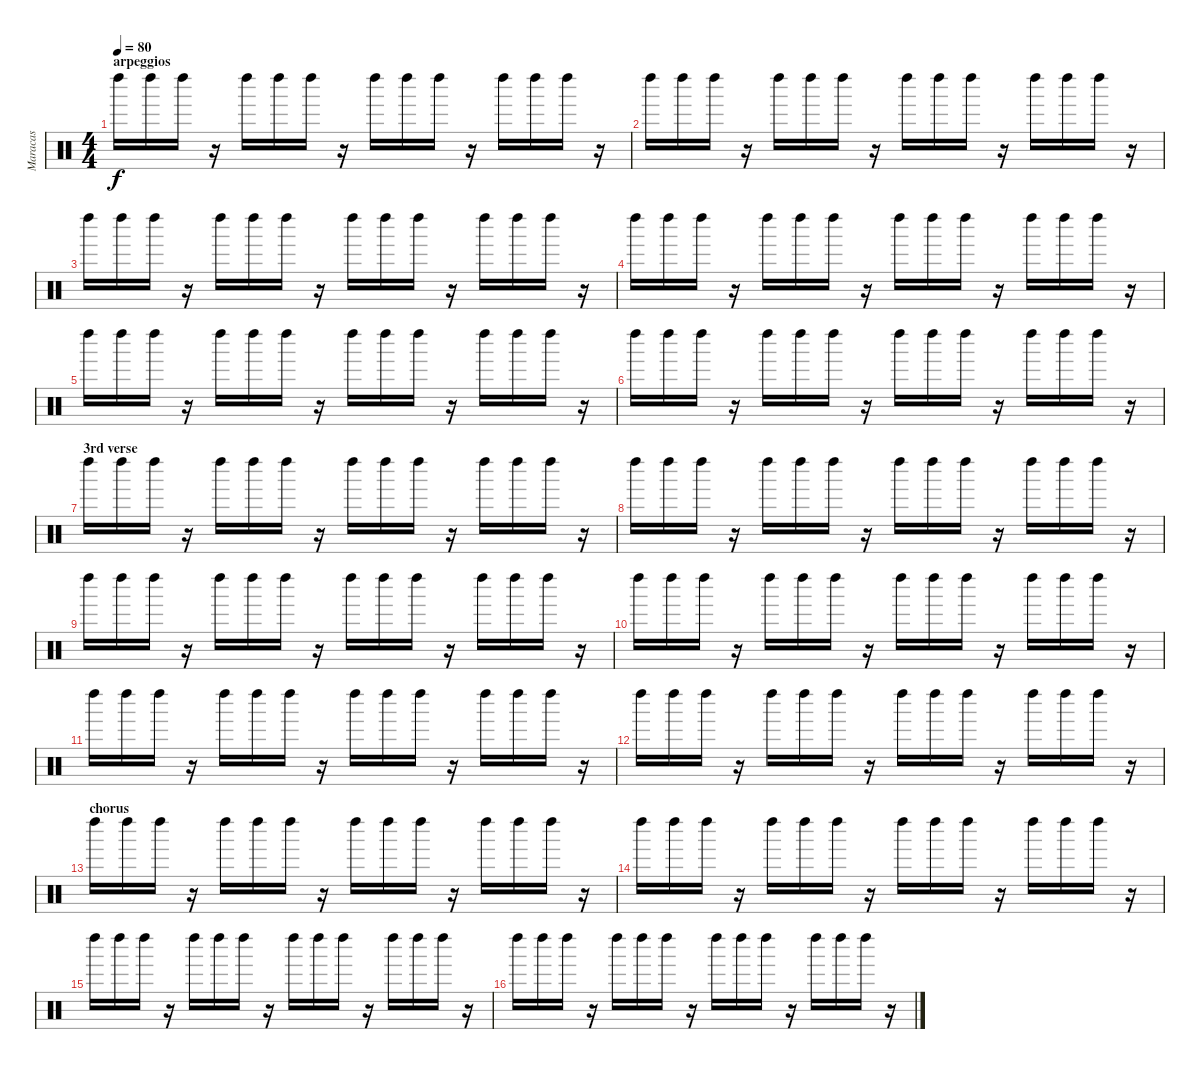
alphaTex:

\track ("Maracas" "Maracas") {instrument percussion}
\staff {score}
\articulation defaults
\ts (4 4)
\section ("" "arpeggios")
\tempo 80
\clef neutral
\ks c "Left Maraca (hit)".16{dy f} "Left Maraca (hit)".16 "Left Maraca (hit)".16
r.16 "Left Maraca (hit)".16 "Left Maraca (hit)".16 "Left Maraca (hit)".16 r.16 "Left Maraca (hit)".16 "Left Maraca (hit)".16 "Left Maraca (hit)".16 r.16 "Left Maraca (hit)".16 "Left Maraca (hit)".16 "Left Maraca (hit)".16 r.16 |
"Left Maraca (hit)".16 "Left Maraca (hit)".16 "Left Maraca (hit)".16 r.16 "Left Maraca (hit)".16 "Left Maraca (hit)".16 "Left Maraca (hit)".16 r.16 "Left Maraca (hit)".16 "Left Maraca (hit)".16 "Left Maraca (hit)".16 r.16 "Left Maraca (hit)".16 "Left Maraca (hit)".16 "Left Maraca (hit)".16 r.16 |
"Left Maraca (hit)".16 "Left Maraca (hit)".16 "Left Maraca (hit)".16 r.16 "Left Maraca (hit)".16 "Left Maraca (hit)".16 "Left Maraca (hit)".16 r.16 "Left Maraca (hit)".16 "Left Maraca (hit)".16 "Left Maraca (hit)".16 r.16 "Left Maraca (hit)".16 "Left Maraca (hit)".16 "Left Maraca (hit)".16 r.16 |
"Left Maraca (hit)".16 "Left Maraca (hit)".16 "Left Maraca (hit)".16 r.16 "Left Maraca (hit)".16 "Left Maraca (hit)".16 "Left Maraca (hit)".16 r.16 "Left Maraca (hit)".16 "Left Maraca (hit)".16 "Left Maraca (hit)".16 r.16 "Left Maraca (hit)".16 "Left Maraca (hit)".16 "Left Maraca (hit)".16 r.16 |
"Left Maraca (hit)".16 "Left Maraca (hit)".16 "Left Maraca (hit)".16 r.16 "Left Maraca (hit)".16 "Left Maraca (hit)".16 "Left Maraca (hit)".16 r.16 "Left Maraca (hit)".16 "Left Maraca (hit)".16 "Left Maraca (hit)".16 r.16 "Left Maraca (hit)".16 "Left Maraca (hit)".16 "Left Maraca (hit)".16 r.16 |
"Left Maraca (hit)".16 "Left Maraca (hit)".16 "Left Maraca (hit)".16 r.16 "Left Maraca (hit)".16 "Left Maraca (hit)".16 "Left Maraca (hit)".16 r.16 "Left Maraca (hit)".16 "Left Maraca (hit)".16 "Left Maraca (hit)".16 r.16 "Left Maraca (hit)".16 "Left Maraca (hit)".16 "Left Maraca (hit)".16 r.16 |
\section ("" "3rd verse")
"Left Maraca (hit)".16 "Left Maraca (hit)".16 "Left Maraca (hit)".16 r.16 "Left Maraca (hit)".16 "Left Maraca (hit)".16 "Left Maraca (hit)".16 r.16 "Left Maraca (hit)".16 "Left Maraca (hit)".16 "Left Maraca (hit)".16 r.16 "Left Maraca (hit)".16 "Left Maraca (hit)".16 "Left Maraca (hit)".16 r.16 |
"Left Maraca (hit)".16 "Left Maraca (hit)".16 "Left Maraca (hit)".16 r.16 "Left Maraca (hit)".16 "Left Maraca (hit)".16 "Left Maraca (hit)".16 r.16 "Left Maraca (hit)".16 "Left Maraca (hit)".16 "Left Maraca (hit)".16 r.16 "Left Maraca (hit)".16 "Left Maraca (hit)".16 "Left Maraca (hit)".16 r.16 |
"Left Maraca (hit)".16 "Left Maraca (hit)".16 "Left Maraca (hit)".16 r.16 "Left Maraca (hit)".16 "Left Maraca (hit)".16 "Left Maraca (hit)".16 r.16 "Left Maraca (hit)".16 "Left Maraca (hit)".16 "Left Maraca (hit)".16 r.16 "Left Maraca (hit)".16 "Left Maraca (hit)".16 "Left Maraca (hit)".16 r.16 |
"Left Maraca (hit)".16 "Left Maraca (hit)".16 "Left Maraca (hit)".16 r.16 "Left Maraca (hit)".16 "Left Maraca (hit)".16 "Left Maraca (hit)".16 r.16 "Left Maraca (hit)".16 "Left Maraca (hit)".16 "Left Maraca (hit)".16 r.16 "Left Maraca (hit)".16 "Left Maraca (hit)".16 "Left Maraca (hit)".16 r.16 |
"Left Maraca (hit)".16 "Left Maraca (hit)".16 "Left Maraca (hit)".16 r.16 "Left Maraca (hit)".16 "Left Maraca (hit)".16 "Left Maraca (hit)".16 r.16 "Left Maraca (hit)".16 "Left Maraca (hit)".16 "Left Maraca (hit)".16 r.16 "Left Maraca (hit)".16 "Left Maraca (hit)".16 "Left Maraca (hit)".16 r.16 |
"Left Maraca (hit)".16 "Left Maraca (hit)".16 "Left Maraca (hit)".16 r.16 "Left Maraca (hit)".16 "Left Maraca (hit)".16 "Left Maraca (hit)".16 r.16 "Left Maraca (hit)".16 "Left Maraca (hit)".16 "Left Maraca (hit)".16 r.16 "Left Maraca (hit)".16 "Left Maraca (hit)".16 "Left Maraca (hit)".16 r.16 |
\section ("" "chorus")
"Left Maraca (hit)".16 "Left Maraca (hit)".16 "Left Maraca (hit)".16 r.16 "Left Maraca (hit)".16 "Left Maraca (hit)".16 "Left Maraca (hit)".16 r.16 "Left Maraca (hit)".16 "Left Maraca (hit)".16 "Left Maraca (hit)".16 r.16 "Left Maraca (hit)".16 "Left Maraca (hit)".16 "Left Maraca (hit)".16 r.16 |
"Left Maraca (hit)".16 "Left Maraca (hit)".16 "Left Maraca (hit)".16 r.16 "Left Maraca (hit)".16 "Left Maraca (hit)".16 "Left Maraca (hit)".16 r.16 "Left Maraca (hit)".16 "Left Maraca (hit)".16 "Left Maraca (hit)".16 r.16 "Left Maraca (hit)".16 "Left Maraca (hit)".16 "Left Maraca (hit)".16 r.16 |
"Left Maraca (hit)".16 "Left Maraca (hit)".16 "Left Maraca (hit)".16 r.16 "Left Maraca (hit)".16 "Left Maraca (hit)".16 "Left Maraca (hit)".16 r.16 "Left Maraca (hit)".16 "Left Maraca (hit)".16 "Left Maraca (hit)".16 r.16 "Left Maraca (hit)".16 "Left Maraca (hit)".16 "Left Maraca (hit)".16 r.16 |
"Left Maraca (hit)".16 "Left Maraca (hit)".16 "Left Maraca (hit)".16 r.16 "Left Maraca (hit)".16 "Left Maraca (hit)".16 "Left Maraca (hit)".16 r.16 "Left Maraca (hit)".16 "Left Maraca (hit)".16 "Left Maraca (hit)".16 r.16 "Left Maraca (hit)".16 "Left Maraca (hit)".16 "Left Maraca (hit)".16 r.16
